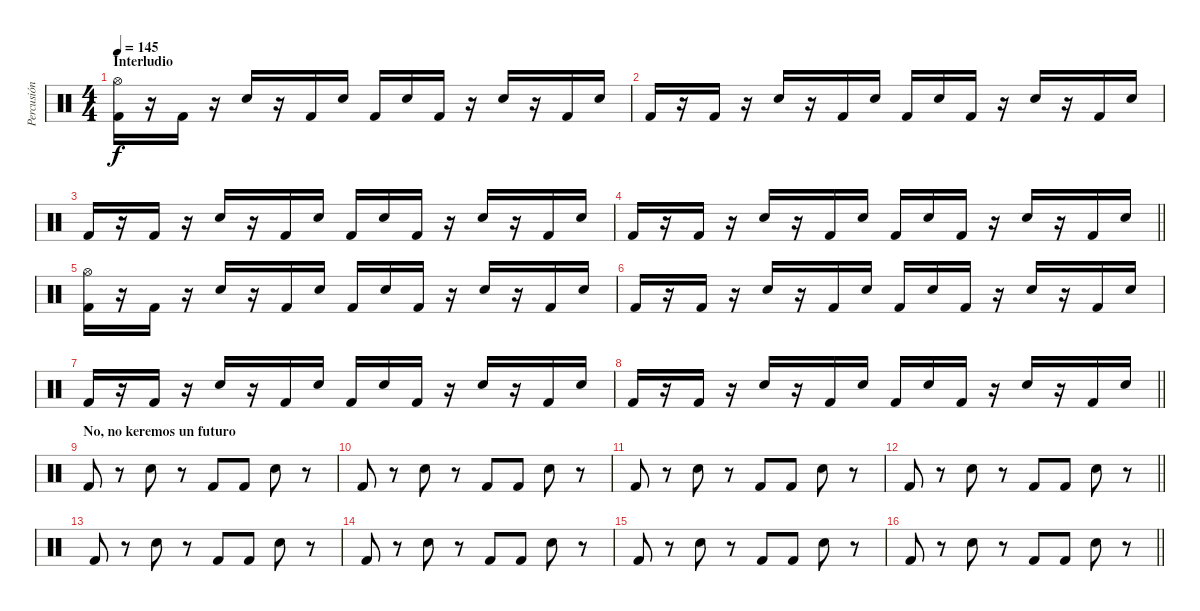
\track ("Percusión" "Percusión") {instrument percussion}
\staff {score}
\articulation defaults
\ts (4 4)
\section ("" "Interludio")
\tempo 145
\clef neutral
\ks c
("Hi-Hat (open)" "Kick (hit) 2").16{dy f} r.16 "Kick (hit) 2".16 r.16 "Snare (hit) 2".16 r.16 "Kick (hit) 2".16 "Snare (hit) 2".16 "Kick (hit) 2".16 "Snare (hit) 2".16 "Kick (hit) 2".16 r.16 "Snare (hit) 2".16 r.16 "Kick (hit) 2".16 "Snare (hit) 2".16 |
"Kick (hit) 2".16 r.16 "Kick (hit) 2".16 r.16 "Snare (hit) 2".16 r.16 "Kick (hit) 2".16 "Snare (hit) 2".16 "Kick (hit) 2".16 "Snare (hit) 2".16 "Kick (hit) 2".16 r.16 "Snare (hit) 2".16 r.16 "Kick (hit) 2".16 "Snare (hit) 2".16 |
"Kick (hit) 2".16 r.16 "Kick (hit) 2".16 r.16 "Snare (hit) 2".16 r.16 "Kick (hit) 2".16 "Snare (hit) 2".16 "Kick (hit) 2".16 "Snare (hit) 2".16 "Kick (hit) 2".16 r.16 "Snare (hit) 2".16 r.16 "Kick (hit) 2".16 "Snare (hit) 2".16 |
\barLineRight lightlight "Kick (hit) 2".16
r.16 "Kick (hit) 2".16 r.16 "Snare (hit) 2".16 r.16 "Kick (hit) 2".16 "Snare (hit) 2".16 "Kick (hit) 2".16 "Snare (hit) 2".16 "Kick (hit) 2".16 r.16 "Snare (hit) 2".16 r.16 "Kick (hit) 2".16 "Snare (hit) 2".16 |
("Hi-Hat (open)" "Kick (hit) 2").16 r.16 "Kick (hit) 2".16 r.16 "Snare (hit) 2".16 r.16 "Kick (hit) 2".16 "Snare (hit) 2".16 "Kick (hit) 2".16 "Snare (hit) 2".16 "Kick (hit) 2".16 r.16 "Snare (hit) 2".16 r.16 "Kick (hit) 2".16 "Snare (hit) 2".16 |
"Kick (hit) 2".16 r.16 "Kick (hit) 2".16 r.16 "Snare (hit) 2".16 r.16 "Kick (hit) 2".16 "Snare (hit) 2".16 "Kick (hit) 2".16 "Snare (hit) 2".16 "Kick (hit) 2".16 r.16 "Snare (hit) 2".16 r.16 "Kick (hit) 2".16 "Snare (hit) 2".16 |
"Kick (hit) 2".16 r.16 "Kick (hit) 2".16 r.16 "Snare (hit) 2".16 r.16 "Kick (hit) 2".16 "Snare (hit) 2".16 "Kick (hit) 2".16 "Snare (hit) 2".16 "Kick (hit) 2".16 r.16 "Snare (hit) 2".16 r.16 "Kick (hit) 2".16 "Snare (hit) 2".16 |
\barLineRight lightlight "Kick (hit) 2".16
r.16 "Kick (hit) 2".16 r.16 "Snare (hit) 2".16 r.16 "Kick (hit) 2".16 "Snare (hit) 2".16 "Kick (hit) 2".16 "Snare (hit) 2".16 "Kick (hit) 2".16 r.16 "Snare (hit) 2".16 r.16 "Kick (hit) 2".16 "Snare (hit) 2".16 |
\section ("" "No, no keremos un futuro")
"Kick (hit) 2".8 r.8 "Snare (hit) 2".8 r.8 "Kick (hit) 2".8 "Kick (hit) 2".8 "Snare (hit) 2".8 r.8 |
"Kick (hit) 2".8 r.8 "Snare (hit) 2".8 r.8 "Kick (hit) 2".8 "Kick (hit) 2".8 "Snare (hit) 2".8 r.8 |
"Kick (hit) 2".8 r.8 "Snare (hit) 2".8 r.8 "Kick (hit) 2".8 "Kick (hit) 2".8 "Snare (hit) 2".8 r.8 |
\barLineRight lightlight "Kick (hit) 2".8
r.8 "Snare (hit) 2".8 r.8 "Kick (hit) 2".8 "Kick (hit) 2".8 "Snare (hit) 2".8 r.8 |
"Kick (hit) 2".8 r.8 "Snare (hit) 2".8 r.8 "Kick (hit) 2".8 "Kick (hit) 2".8 "Snare (hit) 2".8 r.8 |
"Kick (hit) 2".8 r.8 "Snare (hit) 2".8 r.8 "Kick (hit) 2".8 "Kick (hit) 2".8 "Snare (hit) 2".8 r.8 |
"Kick (hit) 2".8 r.8 "Snare (hit) 2".8 r.8 "Kick (hit) 2".8 "Kick (hit) 2".8 "Snare (hit) 2".8 r.8 |
\barLineRight lightlight "Kick (hit) 2".8
r.8 "Snare (hit) 2".8 r.8 "Kick (hit) 2".8 "Kick (hit) 2".8 "Snare (hit) 2".8 r.8
